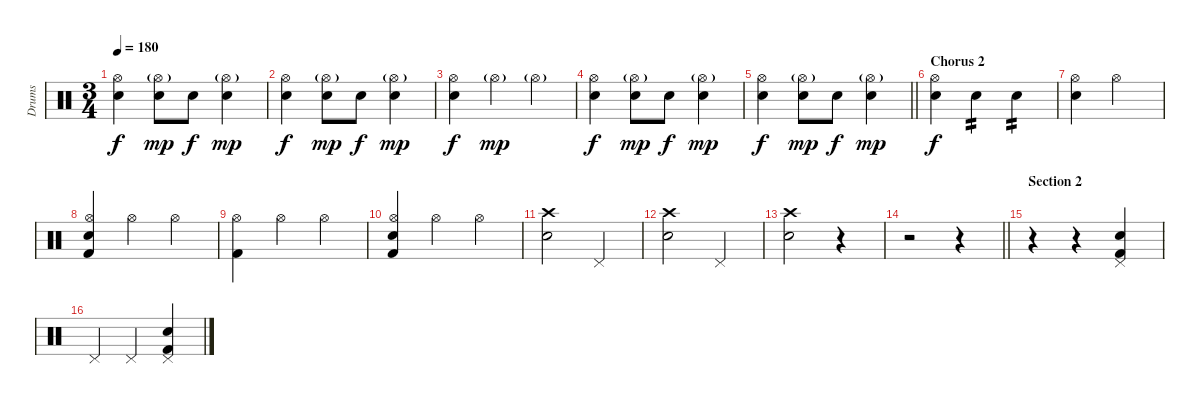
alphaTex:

\track ("Drums" "Drums") {instrument percussion}
\staff {score}
\articulation defaults
\ts (3 4)
\tempo 180
\clef neutral
\ks c
("Snare (hit) 2" "Hi-Hat (open)").4{dy f} ("Electric Snare (hit)" "Hi-Hat (open)"{g}).8{dy mp} "Electric Snare (hit)".8{dy f} ("Electric Snare (hit)" "Hi-Hat (open)"{g}).4{dy mp} |
("Snare (hit) 2" "Hi-Hat (open)").4{dy f} ("Electric Snare (hit)" "Hi-Hat (open)"{g}).8{dy mp} "Electric Snare (hit)".8{dy f} ("Electric Snare (hit)" "Hi-Hat (open)"{g}).4{dy mp} |
("Snare (hit) 2" "Hi-Hat (open)").4{dy f} "Hi-Hat (open)"{g}.4{dy mp} "Hi-Hat (open)"{g}.4 |
("Snare (hit) 2" "Hi-Hat (open)").4{dy f} ("Electric Snare (hit)" "Hi-Hat (open)"{g}).8{dy mp} "Electric Snare (hit)".8{dy f} ("Electric Snare (hit)" "Hi-Hat (open)"{g}).4{dy mp} |
\barLineRight lightlight
("Snare (hit) 2" "Hi-Hat (open)").4{dy f} ("Electric Snare (hit)" "Hi-Hat (open)"{g}).8{dy mp} "Electric Snare (hit)".8{dy f} ("Electric Snare (hit)" "Hi-Hat (open)"{g}).4{dy mp} |
\section ("" "Chorus 2")
("Snare (hit) 2" "Hi-Hat (open)").4{dy f} "Electric Snare (hit)".4{tp 2} "Electric Snare (hit)".4{tp 2} |
("Snare (hit) 2" "Hi-Hat (open)").4 "Hi-Hat (open)".2 |
("Snare (hit) 2" "Hi-Hat (open)" "Kick (hit) 2").4 "Hi-Hat (open)".4 "Hi-Hat (open)".4 |
("Kick (hit) 2" "Hi-Hat (open)").4 "Hi-Hat (open)".4 "Hi-Hat (open)".4 |
("Snare (hit) 2" "Hi-Hat (open)" "Kick (hit) 2").4 "Hi-Hat (open)".4 "Hi-Hat (open)".4 |
("Electric Snare (hit)" "Crash high (hit)").2 "Pedal Hi-Hat (hit)".4 |
("Electric Snare (hit)" "Crash high (hit)").2 "Pedal Hi-Hat (hit)".4 |
("Electric Snare (hit)" "Crash high (hit)").2 r.4 |
\barLineRight lightlight
r.2 r.4 |
\section ("" "Section 2")
r.4 r.4 ("Snare (hit) 2" "Pedal Hi-Hat (hit)" "Kick (hit) 2").4 |
"Pedal Hi-Hat (hit)".4 "Pedal Hi-Hat (hit)".4 ("Snare (hit) 2" "Pedal Hi-Hat (hit)" "Kick (hit) 2").4
